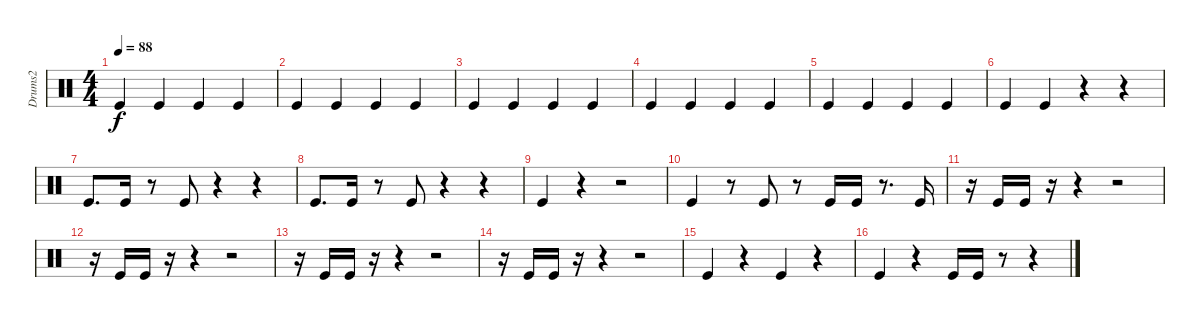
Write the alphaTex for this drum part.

\track ("Drums2" "Drums2") {instrument percussion}
\staff {score}
\articulation defaults
\ts (4 4)
\tempo 88
\clef neutral
\ks c "Kick (hit)".4{dy f} "Kick (hit)".4 "Kick (hit)".4 "Kick (hit)".4
|
"Kick (hit)".4 "Kick (hit)".4 "Kick (hit)".4 "Kick (hit)".4 |
"Kick (hit)".4 "Kick (hit)".4 "Kick (hit)".4 "Kick (hit)".4 |
"Kick (hit)".4 "Kick (hit)".4 "Kick (hit)".4 "Kick (hit)".4 |
"Kick (hit)".4 "Kick (hit)".4 "Kick (hit)".4 "Kick (hit)".4 |
"Kick (hit)".4 "Kick (hit)".4 r.4 r.4 |
"Kick (hit)".8{d} "Kick (hit)".16 r.8 "Kick (hit)".8 r.4 r.4 |
"Kick (hit)".8{d} "Kick (hit)".16 r.8 "Kick (hit)".8 r.4 r.4 |
"Kick (hit)".4 r.4 r.2 |
"Kick (hit)".4 r.8 "Kick (hit)".8 r.8 "Kick (hit)".16 "Kick (hit)".16 r.8{d} "Kick (hit)".16 |
r.16 "Kick (hit)".16 "Kick (hit)".16 r.16 r.4 r.2 |
r.16 "Kick (hit)".16 "Kick (hit)".16 r.16 r.4 r.2 |
r.16 "Kick (hit)".16 "Kick (hit)".16 r.16 r.4 r.2 |
r.16 "Kick (hit)".16 "Kick (hit)".16 r.16 r.4 r.2 |
"Kick (hit)".4 r.4 "Kick (hit)".4 r.4 |
"Kick (hit)".4 r.4 "Kick (hit)".16 "Kick (hit)".16 r.8 r.4
